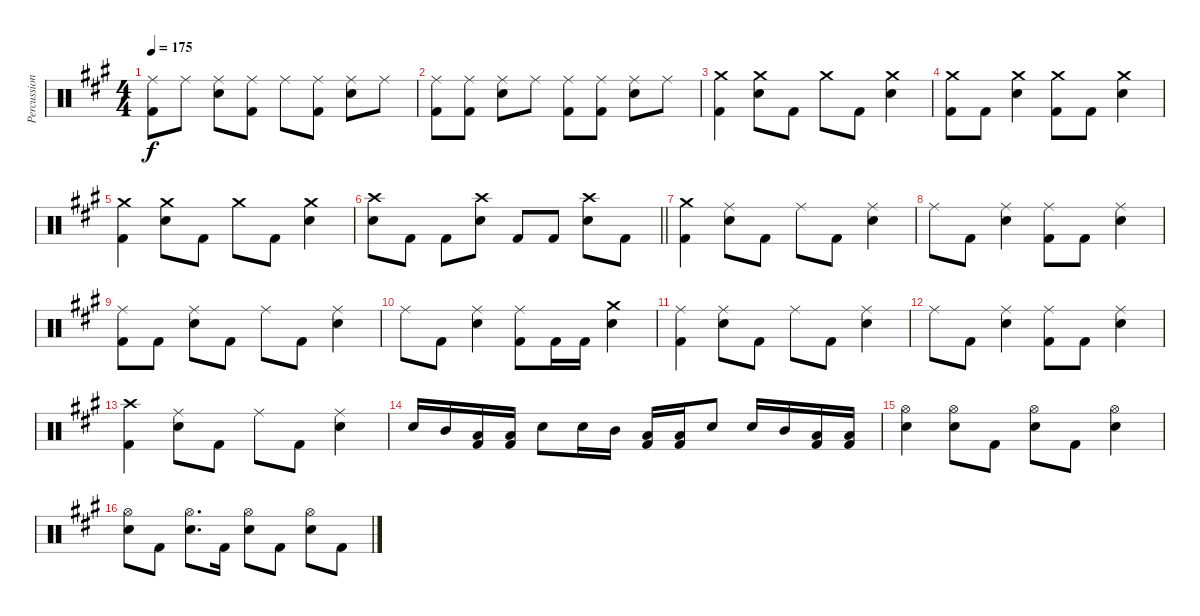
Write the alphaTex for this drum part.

\track ("Percussions" "Percussion") {instrument percussion}
\staff {score}
\articulation defaults
\ts (4 4)
\tempo 175
\clef neutral
\ks f#minor
("Ride (middle)" "Kick (hit) 2").8{dy f} "Ride (middle)".8 ("Ride (middle)" "Snare (hit) 2").8 ("Ride (middle)" "Kick (hit) 2").8 "Ride (middle)".8 ("Ride (middle)" "Kick (hit) 2").8 ("Ride (middle)" "Snare (hit) 2").8 "Ride (middle)".8 |
("Ride (middle)" "Kick (hit) 2").8 ("Ride (middle)" "Kick (hit) 2").8 ("Ride (middle)" "Snare (hit) 2").8 "Ride (middle)".8 ("Ride (middle)" "Kick (hit) 2").8 ("Ride (middle)" "Kick (hit) 2").8 ("Ride (middle)" "Snare (hit) 2").8 "Ride (middle)".8 |
("Crash medium (hit)" "Kick (hit) 2").4 ("Crash medium (hit)" "Snare (hit) 2").8 "Kick (hit) 2".8 "Crash medium (hit)".8 "Kick (hit) 2".8 ("Crash medium (hit)" "Snare (hit) 2").4 |
("Crash medium (hit)" "Kick (hit) 2").8 "Kick (hit) 2".8 ("Crash medium (hit)" "Snare (hit) 2").4 ("Crash medium (hit)" "Kick (hit) 2").8 "Kick (hit) 2".8 ("Crash medium (hit)" "Snare (hit) 2").4 |
("Crash medium (hit)" "Kick (hit) 2").4 ("Crash medium (hit)" "Snare (hit) 2").8 "Kick (hit) 2".8 "Crash medium (hit)".8 "Kick (hit) 2".8 ("Crash medium (hit)" "Snare (hit) 2").4 |
\barLineRight lightlight
("Crash high (hit)" "Snare (hit) 2").8 "Kick (hit) 2".8 "Kick (hit) 2".8 ("Crash high (hit)" "Snare (hit) 2").8 "Kick (hit) 2".8 "Kick (hit) 2".8 ("Crash high (hit)" "Snare (hit) 2").8 "Kick (hit) 2".8 |
("Crash medium (hit)" "Kick (hit) 2").4 ("Ride (middle)" "Snare (hit) 2").8 "Kick (hit) 2".8 "Ride (middle)".8 "Kick (hit) 2".8 ("Ride (middle)" "Snare (hit) 2").4 |
"Ride (middle)".8 "Kick (hit) 2".8 ("Ride (middle)" "Snare (hit) 2").4 ("Ride (middle)" "Kick (hit) 2").8 "Kick (hit) 2".8 ("Ride (middle)" "Snare (hit) 2").4 |
("Ride (middle)" "Kick (hit) 2").8 "Kick (hit) 2".8 ("Ride (middle)" "Snare (hit) 2").8 "Kick (hit) 2".8 "Ride (middle)".8 "Kick (hit) 2".8 ("Ride (middle)" "Snare (hit) 2").4 |
"Ride (middle)".8 "Kick (hit) 2".8 ("Ride (middle)" "Snare (hit) 2").4 ("Ride (middle)" "Kick (hit) 2").8 "Kick (hit) 2".16 "Kick (hit) 2".16 ("Crash medium (hit)" "Snare (hit) 2").4 |
("Ride (middle)" "Kick (hit) 2").4 ("Ride (middle)" "Snare (hit) 2").8 "Kick (hit) 2".8 "Ride (middle)".8 "Kick (hit) 2".8 ("Ride (middle)" "Snare (hit) 2").4 |
"Ride (middle)".8 "Kick (hit) 2".8 ("Ride (middle)" "Snare (hit) 2").4 ("Ride (middle)" "Kick (hit) 2").8 "Kick (hit) 2".8 ("Ride (middle)" "Snare (hit) 2").4 |
("Crash high (hit)" "Kick (hit) 2").4 ("Ride (middle)" "Snare (hit) 2").8 "Kick (hit) 2".8 "Ride (middle)".8 "Kick (hit) 2".8 ("Ride (middle)" "Snare (hit) 2").4 |
"Snare (hit) 2".16 "Mid Tom (hit)".16 ("Low Tom (hit)" "Kick (hit) 2").16 ("Low Tom (hit)" "Kick (hit) 2").16 "Snare (hit) 2".8 "Snare (hit) 2".16 "Mid Tom (hit)".16 ("Low Tom (hit)" "Kick (hit) 2").16 ("Low Tom (hit)" "Kick (hit) 2").16 "Snare (hit) 2".8 "Snare (hit) 2".16 "Mid Tom (hit)".16 ("Low Tom (hit)" "Kick (hit) 2").16 ("Low Tom (hit)" "Kick (hit) 2").16 |
("Hi-Hat (open)" "Snare (hit) 2").4 ("Hi-Hat (open)" "Snare (hit) 2").8 "Kick (hit) 2".8 ("Hi-Hat (open)" "Snare (hit) 2").8 "Kick (hit) 2".8 ("Hi-Hat (open)" "Snare (hit) 2").4 |
("Hi-Hat (open)" "Snare (hit) 2").8 "Kick (hit) 2".8 ("Hi-Hat (open)" "Snare (hit) 2").8{d} "Kick (hit) 2".16 ("Hi-Hat (open)" "Snare (hit) 2").8 "Kick (hit) 2".8 ("Hi-Hat (open)" "Snare (hit) 2").8 "Kick (hit) 2".8
